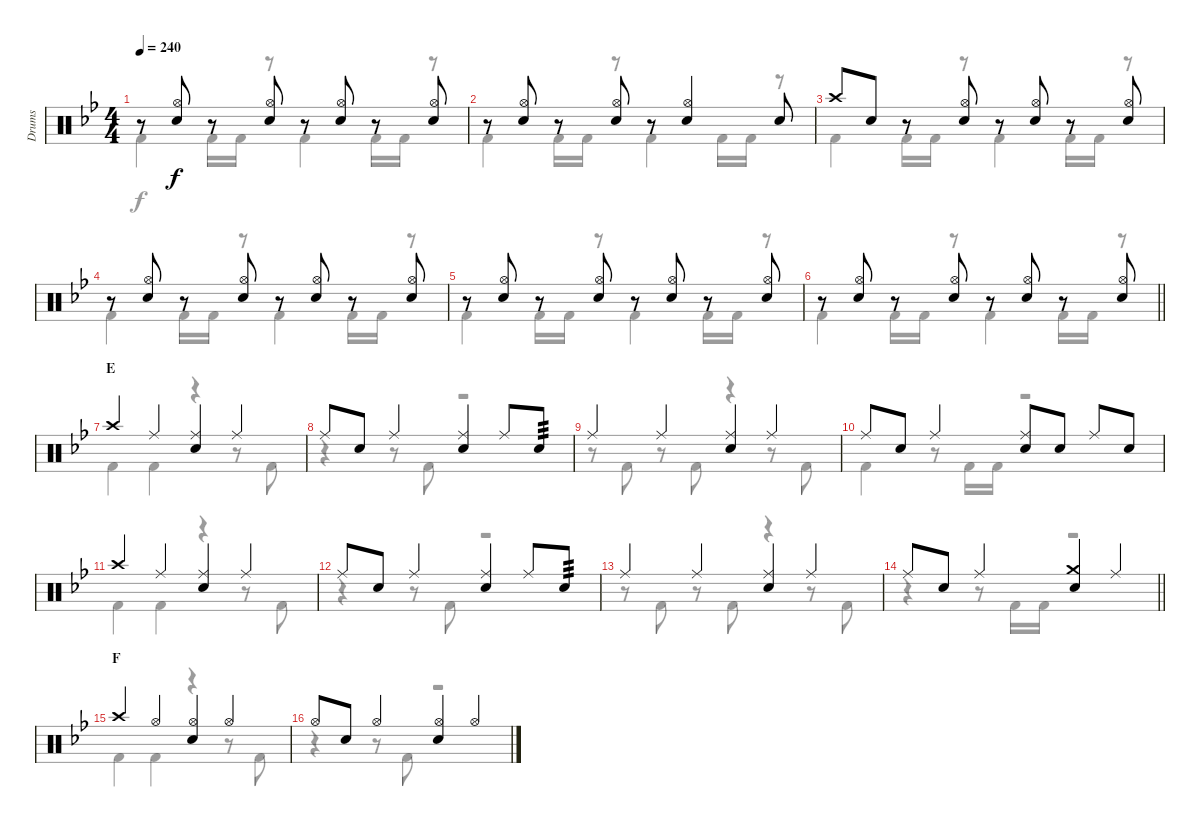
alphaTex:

\track ("Drums" "Drums") {instrument percussion}
\staff {score}
\articulation defaults
\voice
\ts (4 4)
\tempo 240
\clef neutral
\ks bb
r.8{dy f} ("Hi-Hat (open)" "Snare (hit) 2").8 r.8 ("Hi-Hat (open)" "Snare (hit) 2").8 r.8 ("Hi-Hat (open)" "Snare (hit) 2").8 r.8 ("Hi-Hat (open)" "Snare (hit) 2").8 |
r.8 ("Hi-Hat (open)" "Snare (hit) 2").8 r.8 ("Hi-Hat (open)" "Snare (hit) 2").8 r.8 ("Hi-Hat (open)" "Snare (hit) 2").4 "Snare (hit) 2".8 |
"Crash high (hit)".8 "Snare (hit) 2".8 r.8 ("Hi-Hat (open)" "Snare (hit) 2").8 r.8 ("Hi-Hat (open)" "Snare (hit) 2").8 r.8 ("Hi-Hat (open)" "Snare (hit) 2").8 |
r.8 ("Hi-Hat (open)" "Snare (hit) 2").8 r.8 ("Hi-Hat (open)" "Snare (hit) 2").8 r.8 ("Hi-Hat (open)" "Snare (hit) 2").8 r.8 ("Hi-Hat (open)" "Snare (hit) 2").8 |
r.8 ("Hi-Hat (open)" "Snare (hit) 2").8 r.8 ("Hi-Hat (open)" "Snare (hit) 2").8 r.8 ("Hi-Hat (open)" "Snare (hit) 2").8 r.8 ("Hi-Hat (open)" "Snare (hit) 2").8 |
\barLineRight lightlight
r.8 ("Hi-Hat (open)" "Snare (hit) 2").8 r.8 ("Hi-Hat (open)" "Snare (hit) 2").8 r.8 ("Hi-Hat (open)" "Snare (hit) 2").8 r.8 ("Hi-Hat (open)" "Snare (hit) 2").8 |
\section ("" "E")
"Crash high (hit)".4 "Ride (middle)".4 ("Ride (middle)" "Snare (hit) 2").4 "Ride (middle)".4 |
"Ride (middle)".8 "Snare (hit) 2".8 "Ride (middle)".4 ("Ride (middle)" "Snare (hit) 2").4 "Ride (middle)".8 "Snare (hit) 2".8{tp 3} |
"Ride (middle)".4 "Ride (middle)".4 ("Ride (middle)" "Snare (hit) 2").4 "Ride (middle)".4 |
"Ride (middle)".8 "Snare (hit) 2".8 "Ride (middle)".4 ("Ride (middle)" "Snare (hit) 2").8 "Snare (hit) 2".8 "Ride (middle)".8 "Snare (hit) 2".8 |
"Crash high (hit)".4 "Ride (middle)".4 ("Ride (middle)" "Snare (hit) 2").4 "Ride (middle)".4 |
"Ride (middle)".8 "Snare (hit) 2".8 "Ride (middle)".4 ("Ride (middle)" "Snare (hit) 2").4 "Ride (middle)".8 "Snare (hit) 2".8{tp 3} |
"Ride (middle)".4 "Ride (middle)".4 ("Ride (middle)" "Snare (hit) 2").4 "Ride (middle)".4 |
\barLineRight lightlight "Ride (middle)".8 "Snare (hit) 2".8 "Ride (middle)".4
("Crash medium (hit)" "Snare (hit) 2").4 "Ride (middle)".4 |
\section ("" "F")
"Crash high (hit)".4 "Hi-Hat (open)".4 ("Hi-Hat (open)" "Snare (hit) 2").4 "Hi-Hat (open)".4 |
"Hi-Hat (open)".8 "Snare (hit) 2".8 "Hi-Hat (open)".4 ("Hi-Hat (open)" "Snare (hit) 2").4 "Hi-Hat (open)".4
\voice
\clef neutral
\ottava regular
\simile none
\ks bb "Kick (hit) 2".4{dy f} "Kick (hit) 2".16 "Kick (hit) 2".16
r.8 "Kick (hit) 2".4 "Kick (hit) 2".16 "Kick (hit) 2".16 r.8 |
"Kick (hit) 2".4 "Kick (hit) 2".16 "Kick (hit) 2".16 r.8 "Kick (hit) 2".4 "Kick (hit) 2".16 "Kick (hit) 2".16 r.8 |
"Kick (hit) 2".4 "Kick (hit) 2".16 "Kick (hit) 2".16 r.8 "Kick (hit) 2".4 "Kick (hit) 2".16 "Kick (hit) 2".16 r.8 |
"Kick (hit) 2".4 "Kick (hit) 2".16 "Kick (hit) 2".16 r.8 "Kick (hit) 2".4 "Kick (hit) 2".16 "Kick (hit) 2".16 r.8 |
"Kick (hit) 2".4 "Kick (hit) 2".16 "Kick (hit) 2".16 r.8 "Kick (hit) 2".4 "Kick (hit) 2".16 "Kick (hit) 2".16 r.8 |
\barLineRight lightlight "Kick (hit) 2".4 "Kick (hit) 2".16 "Kick (hit) 2".16
r.8 "Kick (hit) 2".4 "Kick (hit) 2".16 "Kick (hit) 2".16 r.8 |
"Kick (hit) 2".4 "Kick (hit) 2".4 r.4 r.8 "Kick (hit) 2".8 |
r.4 r.8 "Kick (hit) 2".8 r.2 |
r.8 "Kick (hit) 2".8 r.8 "Kick (hit) 2".8 r.4 r.8 "Kick (hit) 2".8 |
"Kick (hit) 2".4 r.8 "Kick (hit) 2".16 "Kick (hit) 2".16 r.2 |
"Kick (hit) 2".4 "Kick (hit) 2".4 r.4 r.8 "Kick (hit) 2".8 |
r.4 r.8 "Kick (hit) 2".8 r.2 |
r.8 "Kick (hit) 2".8 r.8 "Kick (hit) 2".8 r.4 r.8 "Kick (hit) 2".8 |
\barLineRight lightlight
r.4 r.8 "Kick (hit) 2".16 "Kick (hit) 2".16 r.2 |
"Kick (hit) 2".4 "Kick (hit) 2".4 r.4 r.8 "Kick (hit) 2".8 |
r.4 r.8 "Kick (hit) 2".8 r.2
